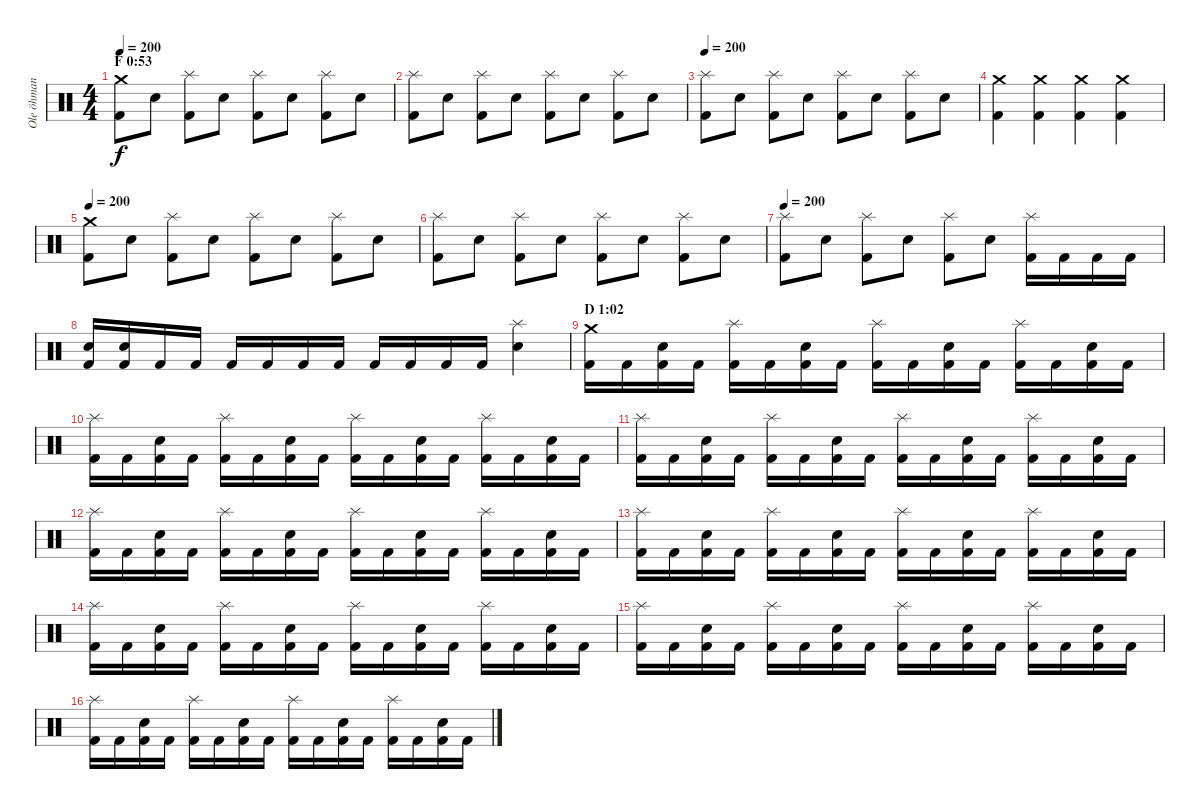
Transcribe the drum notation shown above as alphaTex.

\track ("Ole öhman" "Ole öhman") {instrument percussion}
\staff {score}
\articulation defaults
\ts (4 4)
\section ("" "F 0:53")
\tempo 200
\clef neutral
\ks c
("Crash medium (hit)" "Kick (hit) 2").8{dy f} "Electric Snare (hit)".8 ("Splash (hit)" "Kick (hit) 2").8 "Electric Snare (hit)".8 ("Splash (hit)" "Kick (hit) 2").8 "Electric Snare (hit)".8 ("Splash (hit)" "Kick (hit) 2").8 "Electric Snare (hit)".8 |
("Splash (hit)" "Kick (hit) 2").8 "Electric Snare (hit)".8 ("Splash (hit)" "Kick (hit) 2").8 "Electric Snare (hit)".8 ("Splash (hit)" "Kick (hit) 2").8 "Electric Snare (hit)".8 ("Splash (hit)" "Kick (hit) 2").8 "Electric Snare (hit)".8 |
\tempo 200
("Splash (hit)" "Kick (hit) 2").8 "Electric Snare (hit)".8 ("Splash (hit)" "Kick (hit) 2").8 "Electric Snare (hit)".8 ("Splash (hit)" "Kick (hit) 2").8 "Electric Snare (hit)".8 ("Splash (hit)" "Kick (hit) 2").8 "Electric Snare (hit)".8 |
("Crash medium (hit)" "Kick (hit) 2").4 ("Crash medium (hit)" "Kick (hit) 2").4 ("Crash medium (hit)" "Kick (hit) 2").4 ("Crash medium (hit)" "Kick (hit) 2").4 |
\tempo 200
("Crash medium (hit)" "Kick (hit) 2").8 "Electric Snare (hit)".8 ("Splash (hit)" "Kick (hit) 2").8 "Electric Snare (hit)".8 ("Splash (hit)" "Kick (hit) 2").8 "Electric Snare (hit)".8 ("Splash (hit)" "Kick (hit) 2").8 "Electric Snare (hit)".8 |
("Splash (hit)" "Kick (hit) 2").8 "Electric Snare (hit)".8 ("Splash (hit)" "Kick (hit) 2").8 "Electric Snare (hit)".8 ("Splash (hit)" "Kick (hit) 2").8 "Electric Snare (hit)".8 ("Splash (hit)" "Kick (hit) 2").8 "Electric Snare (hit)".8 |
\tempo 200
("Splash (hit)" "Kick (hit) 2").8 "Electric Snare (hit)".8 ("Splash (hit)" "Kick (hit) 2").8 "Electric Snare (hit)".8 ("Splash (hit)" "Kick (hit) 2").8 "Electric Snare (hit)".8 ("Splash (hit)" "Kick (hit) 2").16 "Kick (hit) 2".16 "Kick (hit) 2".16 "Kick (hit) 2".16 |
("Electric Snare (hit)" "Kick (hit) 2").16 ("Electric Snare (hit)" "Kick (hit) 2").16 "Kick (hit) 2".16 "Kick (hit) 2".16 "Kick (hit) 2".16 "Kick (hit) 2".16 "Kick (hit) 2".16 "Kick (hit) 2".16 "Kick (hit) 2".16 "Kick (hit) 2".16 "Kick (hit) 2".16 "Kick (hit) 2".16 ("Splash (hit)" "Electric Snare (hit)").4 |
\section ("" "D 1:02")
("Crash medium (hit)" "Kick (hit) 2").16 "Kick (hit) 2".16 ("Electric Snare (hit)" "Kick (hit) 2").16 "Kick (hit) 2".16 ("Splash (hit)" "Kick (hit) 2").16 "Kick (hit) 2".16 ("Electric Snare (hit)" "Kick (hit) 2").16 "Kick (hit) 2".16 ("Splash (hit)" "Kick (hit) 2").16 "Kick (hit) 2".16 ("Electric Snare (hit)" "Kick (hit) 2").16 "Kick (hit) 2".16 ("Splash (hit)" "Kick (hit) 2").16 "Kick (hit) 2".16 ("Electric Snare (hit)" "Kick (hit) 2").16 "Kick (hit) 2".16 |
("Splash (hit)" "Kick (hit) 2").16 "Kick (hit) 2".16 ("Electric Snare (hit)" "Kick (hit) 2").16 "Kick (hit) 2".16 ("Splash (hit)" "Kick (hit) 2").16 "Kick (hit) 2".16 ("Electric Snare (hit)" "Kick (hit) 2").16 "Kick (hit) 2".16 ("Splash (hit)" "Kick (hit) 2").16 "Kick (hit) 2".16 ("Electric Snare (hit)" "Kick (hit) 2").16 "Kick (hit) 2".16 ("Splash (hit)" "Kick (hit) 2").16 "Kick (hit) 2".16 ("Electric Snare (hit)" "Kick (hit) 2").16 "Kick (hit) 2".16 |
("Splash (hit)" "Kick (hit) 2").16 "Kick (hit) 2".16 ("Electric Snare (hit)" "Kick (hit) 2").16 "Kick (hit) 2".16 ("Splash (hit)" "Kick (hit) 2").16 "Kick (hit) 2".16 ("Electric Snare (hit)" "Kick (hit) 2").16 "Kick (hit) 2".16 ("Splash (hit)" "Kick (hit) 2").16 "Kick (hit) 2".16 ("Electric Snare (hit)" "Kick (hit) 2").16 "Kick (hit) 2".16 ("Splash (hit)" "Kick (hit) 2").16 "Kick (hit) 2".16 ("Electric Snare (hit)" "Kick (hit) 2").16 "Kick (hit) 2".16 |
("Splash (hit)" "Kick (hit) 2").16 "Kick (hit) 2".16 ("Electric Snare (hit)" "Kick (hit) 2").16 "Kick (hit) 2".16 ("Splash (hit)" "Kick (hit) 2").16 "Kick (hit) 2".16 ("Electric Snare (hit)" "Kick (hit) 2").16 "Kick (hit) 2".16 ("Splash (hit)" "Kick (hit) 2").16 "Kick (hit) 2".16 ("Electric Snare (hit)" "Kick (hit) 2").16 "Kick (hit) 2".16 ("Splash (hit)" "Kick (hit) 2").16 "Kick (hit) 2".16 ("Electric Snare (hit)" "Kick (hit) 2").16 "Kick (hit) 2".16 |
("Splash (hit)" "Kick (hit) 2").16 "Kick (hit) 2".16 ("Electric Snare (hit)" "Kick (hit) 2").16 "Kick (hit) 2".16 ("Splash (hit)" "Kick (hit) 2").16 "Kick (hit) 2".16 ("Electric Snare (hit)" "Kick (hit) 2").16 "Kick (hit) 2".16 ("Splash (hit)" "Kick (hit) 2").16 "Kick (hit) 2".16 ("Electric Snare (hit)" "Kick (hit) 2").16 "Kick (hit) 2".16 ("Splash (hit)" "Kick (hit) 2").16 "Kick (hit) 2".16 ("Electric Snare (hit)" "Kick (hit) 2").16 "Kick (hit) 2".16 |
("Splash (hit)" "Kick (hit) 2").16 "Kick (hit) 2".16 ("Electric Snare (hit)" "Kick (hit) 2").16 "Kick (hit) 2".16 ("Splash (hit)" "Kick (hit) 2").16 "Kick (hit) 2".16 ("Electric Snare (hit)" "Kick (hit) 2").16 "Kick (hit) 2".16 ("Splash (hit)" "Kick (hit) 2").16 "Kick (hit) 2".16 ("Electric Snare (hit)" "Kick (hit) 2").16 "Kick (hit) 2".16 ("Splash (hit)" "Kick (hit) 2").16 "Kick (hit) 2".16 ("Electric Snare (hit)" "Kick (hit) 2").16 "Kick (hit) 2".16 |
("Splash (hit)" "Kick (hit) 2").16 "Kick (hit) 2".16 ("Electric Snare (hit)" "Kick (hit) 2").16 "Kick (hit) 2".16 ("Splash (hit)" "Kick (hit) 2").16 "Kick (hit) 2".16 ("Electric Snare (hit)" "Kick (hit) 2").16 "Kick (hit) 2".16 ("Splash (hit)" "Kick (hit) 2").16 "Kick (hit) 2".16 ("Electric Snare (hit)" "Kick (hit) 2").16 "Kick (hit) 2".16 ("Splash (hit)" "Kick (hit) 2").16 "Kick (hit) 2".16 ("Electric Snare (hit)" "Kick (hit) 2").16 "Kick (hit) 2".16 |
("Splash (hit)" "Kick (hit) 2").16 "Kick (hit) 2".16 ("Electric Snare (hit)" "Kick (hit) 2").16 "Kick (hit) 2".16 ("Splash (hit)" "Kick (hit) 2").16 "Kick (hit) 2".16 ("Electric Snare (hit)" "Kick (hit) 2").16 "Kick (hit) 2".16 ("Splash (hit)" "Kick (hit) 2").16 "Kick (hit) 2".16 ("Electric Snare (hit)" "Kick (hit) 2").16 "Kick (hit) 2".16 ("Splash (hit)" "Kick (hit) 2").16 "Kick (hit) 2".16 ("Electric Snare (hit)" "Kick (hit) 2").16 "Kick (hit) 2".16
